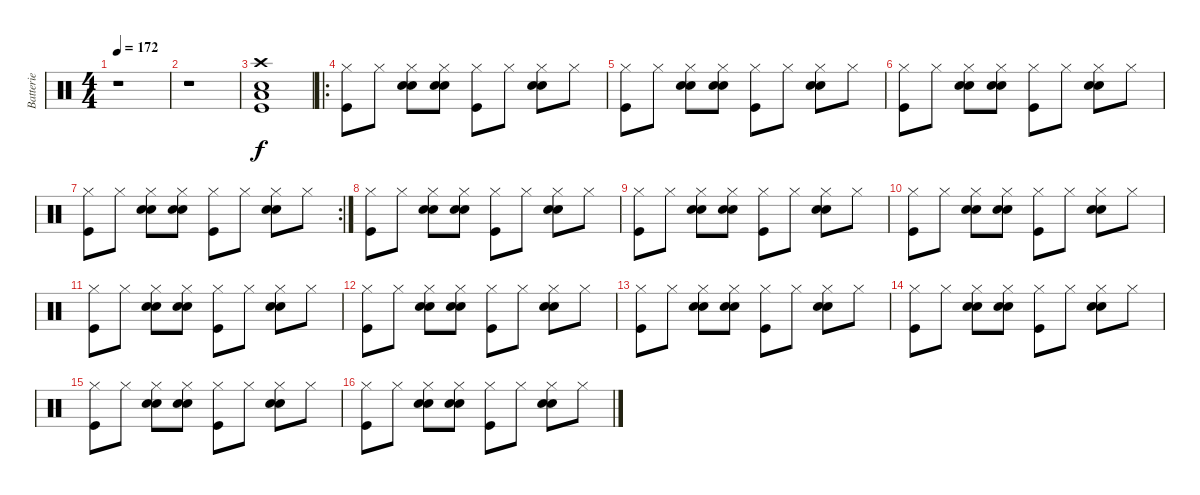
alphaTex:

\track ("Batterie" "Batterie") {instrument percussion}
\staff {score}
\articulation defaults
\ts (4 4)
\tempo 172
\clef neutral
\ks c
r.1{dy f} |
r.1 |
("Crash high (hit)" "Snare (hit) 2" "Low Tom (hit)" "Kick (hit)").1 |
\ro
("Hi-Hat (closed)" "Kick (hit)").8 "Hi-Hat (closed)".8 ("Electric Snare (hit)" "Hi-Hat (closed)" "Snare (hit) 2").8 ("Electric Snare (hit)" "Hi-Hat (closed)" "Snare (hit) 2").8 ("Hi-Hat (closed)" "Kick (hit)").8 "Hi-Hat (closed)".8 ("Electric Snare (hit)" "Hi-Hat (closed)" "Snare (hit) 2").8 "Hi-Hat (closed)".8 |
("Hi-Hat (closed)" "Kick (hit)").8 "Hi-Hat (closed)".8 ("Electric Snare (hit)" "Hi-Hat (closed)" "Snare (hit) 2").8 ("Electric Snare (hit)" "Hi-Hat (closed)" "Snare (hit) 2").8 ("Hi-Hat (closed)" "Kick (hit)").8 "Hi-Hat (closed)".8 ("Electric Snare (hit)" "Hi-Hat (closed)" "Snare (hit) 2").8 "Hi-Hat (closed)".8 |
("Hi-Hat (closed)" "Kick (hit)").8 "Hi-Hat (closed)".8 ("Electric Snare (hit)" "Hi-Hat (closed)" "Snare (hit) 2").8 ("Electric Snare (hit)" "Hi-Hat (closed)" "Snare (hit) 2").8 ("Hi-Hat (closed)" "Kick (hit)").8 "Hi-Hat (closed)".8 ("Electric Snare (hit)" "Hi-Hat (closed)" "Snare (hit) 2").8 "Hi-Hat (closed)".8 |
\rc 2
("Hi-Hat (closed)" "Kick (hit)").8 "Hi-Hat (closed)".8 ("Electric Snare (hit)" "Hi-Hat (closed)" "Snare (hit) 2").8 ("Electric Snare (hit)" "Hi-Hat (closed)" "Snare (hit) 2").8 ("Hi-Hat (closed)" "Kick (hit)").8 "Hi-Hat (closed)".8 ("Electric Snare (hit)" "Hi-Hat (closed)" "Snare (hit) 2").8 "Hi-Hat (closed)".8 |
("Hi-Hat (closed)" "Kick (hit)").8 "Hi-Hat (closed)".8 ("Electric Snare (hit)" "Hi-Hat (closed)" "Snare (hit) 2").8 ("Electric Snare (hit)" "Hi-Hat (closed)" "Snare (hit) 2").8 ("Hi-Hat (closed)" "Kick (hit)").8 "Hi-Hat (closed)".8 ("Electric Snare (hit)" "Hi-Hat (closed)" "Snare (hit) 2").8 "Hi-Hat (closed)".8 |
("Hi-Hat (closed)" "Kick (hit)").8 "Hi-Hat (closed)".8 ("Electric Snare (hit)" "Hi-Hat (closed)" "Snare (hit) 2").8 ("Electric Snare (hit)" "Hi-Hat (closed)" "Snare (hit) 2").8 ("Hi-Hat (closed)" "Kick (hit)").8 "Hi-Hat (closed)".8 ("Electric Snare (hit)" "Hi-Hat (closed)" "Snare (hit) 2").8 "Hi-Hat (closed)".8 |
("Hi-Hat (closed)" "Kick (hit)").8 "Hi-Hat (closed)".8 ("Electric Snare (hit)" "Hi-Hat (closed)" "Snare (hit) 2").8 ("Electric Snare (hit)" "Hi-Hat (closed)" "Snare (hit) 2").8 ("Hi-Hat (closed)" "Kick (hit)").8 "Hi-Hat (closed)".8 ("Electric Snare (hit)" "Hi-Hat (closed)" "Snare (hit) 2").8 "Hi-Hat (closed)".8 |
("Hi-Hat (closed)" "Kick (hit)").8 "Hi-Hat (closed)".8 ("Electric Snare (hit)" "Hi-Hat (closed)" "Snare (hit) 2").8 ("Electric Snare (hit)" "Hi-Hat (closed)" "Snare (hit) 2").8 ("Hi-Hat (closed)" "Kick (hit)").8 "Hi-Hat (closed)".8 ("Electric Snare (hit)" "Hi-Hat (closed)" "Snare (hit) 2").8 "Hi-Hat (closed)".8 |
("Hi-Hat (closed)" "Kick (hit)").8 "Hi-Hat (closed)".8 ("Electric Snare (hit)" "Hi-Hat (closed)" "Snare (hit) 2").8 ("Electric Snare (hit)" "Hi-Hat (closed)" "Snare (hit) 2").8 ("Hi-Hat (closed)" "Kick (hit)").8 "Hi-Hat (closed)".8 ("Electric Snare (hit)" "Hi-Hat (closed)" "Snare (hit) 2").8 "Hi-Hat (closed)".8 |
("Hi-Hat (closed)" "Kick (hit)").8 "Hi-Hat (closed)".8 ("Electric Snare (hit)" "Hi-Hat (closed)" "Snare (hit) 2").8 ("Electric Snare (hit)" "Hi-Hat (closed)" "Snare (hit) 2").8 ("Hi-Hat (closed)" "Kick (hit)").8 "Hi-Hat (closed)".8 ("Electric Snare (hit)" "Hi-Hat (closed)" "Snare (hit) 2").8 "Hi-Hat (closed)".8 |
("Hi-Hat (closed)" "Kick (hit)").8 "Hi-Hat (closed)".8 ("Electric Snare (hit)" "Hi-Hat (closed)" "Snare (hit) 2").8 ("Electric Snare (hit)" "Hi-Hat (closed)" "Snare (hit) 2").8 ("Hi-Hat (closed)" "Kick (hit)").8 "Hi-Hat (closed)".8 ("Electric Snare (hit)" "Hi-Hat (closed)" "Snare (hit) 2").8 "Hi-Hat (closed)".8 |
("Hi-Hat (closed)" "Kick (hit)").8 "Hi-Hat (closed)".8 ("Electric Snare (hit)" "Hi-Hat (closed)" "Snare (hit) 2").8 ("Electric Snare (hit)" "Hi-Hat (closed)" "Snare (hit) 2").8 ("Hi-Hat (closed)" "Kick (hit)").8 "Hi-Hat (closed)".8 ("Electric Snare (hit)" "Hi-Hat (closed)" "Snare (hit) 2").8 "Hi-Hat (closed)".8 |
("Hi-Hat (closed)" "Kick (hit)").8 "Hi-Hat (closed)".8 ("Electric Snare (hit)" "Hi-Hat (closed)" "Snare (hit) 2").8 ("Electric Snare (hit)" "Hi-Hat (closed)" "Snare (hit) 2").8 ("Hi-Hat (closed)" "Kick (hit)").8 "Hi-Hat (closed)".8 ("Electric Snare (hit)" "Hi-Hat (closed)" "Snare (hit) 2").8 "Hi-Hat (closed)".8
